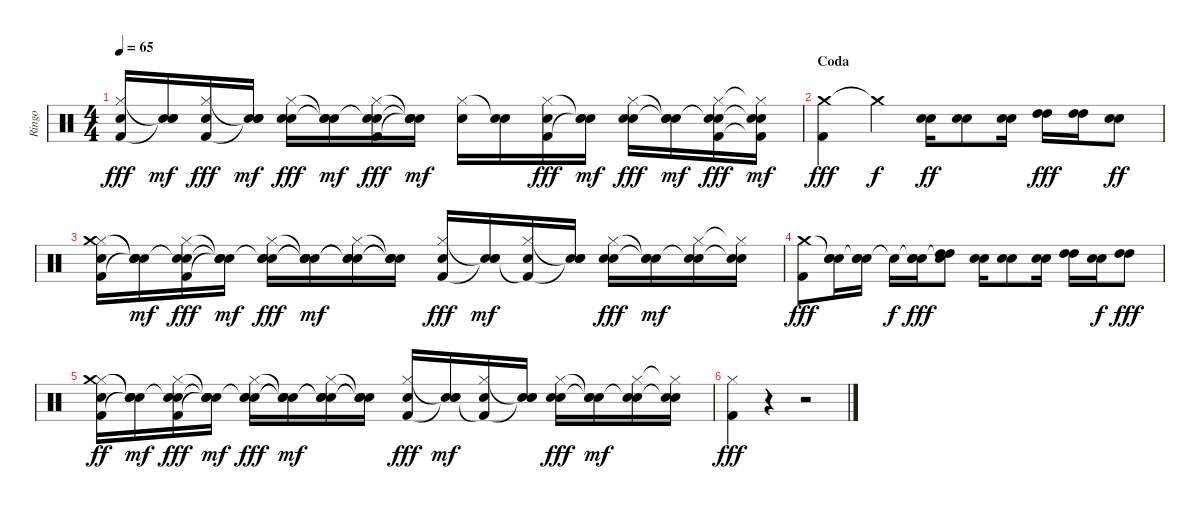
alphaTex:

\track ("Ringo" "Ringo") {instrument percussion}
\staff {score}
\articulation defaults
\ts (4 4)
\tempo 65
\clef neutral
\ks c
("Electric Snare (hit)" "Hi-Hat (closed)" "Kick (hit) 2").16{dy fff} ("Electric Snare (hit)" "Snare (hit)"{t} "Snare (hit)"{t}).16{dy mf} ("Electric Snare (hit)" "Hi-Hat (closed)" "Kick (hit) 2").16{dy fff} ("Electric Snare (hit)" "Snare (hit)"{t} "Snare (hit)"{t}).16{dy mf} ("Electric Snare (hit)" "Hi-Hat (closed)" "Snare (hit) 2").16{dy fff} ("Electric Snare (hit)" "Snare (hit)"{t} "Snare (hit)"{t}).16{dy mf} ("Electric Snare (hit)" "Hi-Hat (closed)" "Snare (hit)"{t} "Kick (hit) 2").16{dy fff} ("Electric Snare (hit)" "Snare (hit)"{t} "Snare (hit)"{t} "Snare (hit)"{t}).16{dy mf} ("Electric Snare (hit)" "Hi-Hat (closed)").16 ("Electric Snare (hit)" "Snare (hit)"{t}).16 ("Electric Snare (hit)" "Hi-Hat (closed)" "Kick (hit) 2").16{dy fff} ("Electric Snare (hit)" "Snare (hit)"{t} "Snare (hit)"{t}).16{dy mf} ("Electric Snare (hit)" "Hi-Hat (closed)" "Snare (hit) 2").16{dy fff} ("Electric Snare (hit)" "Snare (hit)"{t} "Snare (hit)"{t}).16{dy mf} ("Electric Snare (hit)" "Hi-Hat (closed)" "Snare (hit)"{t} "Kick (hit) 2").16{dy fff} ("Electric Snare (hit)" "Hi-Hat (closed)"{t} "Snare (hit)"{t} "Kick (hit) 2"{t}).16{dy mf} |
\section ("" "Coda")
("Crash medium (hit)" "Kick (hit) 2").4{dy fff} "Crash medium (hit)"{t}.4{dy f} ("Snare (hit) 2" "Snare (hit) 2").16{dy ff} ("Snare (hit) 2" "Snare (hit) 2").8 ("Snare (hit) 2" "Snare (hit) 2").16 ("High Tom (hit)" "High Tom (hit)").16{dy fff} ("High Tom (hit)" "High Tom (hit)").16 ("Snare (hit) 2" "Snare (hit) 2").8{dy ff} |
("Electric Snare (hit)" "Hi-Hat (closed)" "Kick (hit) 2" "Crash medium (hit)").16 ("Electric Snare (hit)" "Snare (hit)"{t} "Snare (hit)"{t} "Snare (hit)"{t}).16{dy mf} ("Electric Snare (hit)" "Hi-Hat (closed)" "Kick (hit) 2" "Snare (hit)"{t}).16{dy fff} ("Electric Snare (hit)" "Snare (hit)"{t} "Snare (hit)"{t} "Snare (hit)"{t}).16{dy mf} ("Electric Snare (hit)" "Hi-Hat (closed)" "Snare (hit) 2" "Snare (hit)"{t}).16{dy fff} ("Electric Snare (hit)" "Snare (hit)"{t} "Snare (hit)"{t} "Snare (hit)"{t}).16{dy mf} ("Electric Snare (hit)" "Hi-Hat (closed)" "Snare (hit)"{t} "Snare (hit)"{t}).16 ("Electric Snare (hit)" "Snare (hit)"{t} "Snare (hit)"{t} "Snare (hit)"{t}).16 ("Electric Snare (hit)" "Hi-Hat (closed)" "Kick (hit) 2").16{dy fff} ("Electric Snare (hit)" "Snare (hit)"{t} "Snare (hit)"{t}).16{dy mf} ("Electric Snare (hit)" "Hi-Hat (closed)" "Kick (hit) 2"{t}).16 ("Electric Snare (hit)" "Snare (hit)"{t} "Snare (hit)"{t}).16 ("Electric Snare (hit)" "Hi-Hat (closed)" "Snare (hit) 2").16{dy fff} ("Electric Snare (hit)" "Snare (hit)"{t} "Snare (hit)"{t}).16{dy mf} ("Electric Snare (hit)" "Hi-Hat (closed)" "Snare (hit)"{t}).16 ("Electric Snare (hit)" "Hi-Hat (closed)"{t} "Snare (hit)"{t}).16 |
("Crash medium (hit)" "Kick (hit) 2").8{dy fff} ("Snare (hit)"{t} "Snare (hit) 2" "Snare (hit) 2").16 ("Snare (hit)"{t} "Snare (hit) 2" "Snare (hit) 2").16 "Snare (hit)"{t}.16{dy f} ("Snare (hit)"{t} "Snare (hit) 2" "Snare (hit) 2").16{dy fff} ("Snare (hit)"{t} "High Tom (hit)" "High Tom (hit)").8 ("Snare (hit) 2" "Snare (hit) 2").16 ("Snare (hit) 2" "Snare (hit) 2").8 ("Snare (hit) 2" "Snare (hit) 2").16 ("High Tom (hit)" "High Tom (hit)").16 ("Snare (hit) 2" "Snare (hit) 2").16{dy f} ("High Tom (hit)" "High Tom (hit)").8{dy fff} |
("Electric Snare (hit)" "Hi-Hat (closed)" "Kick (hit) 2" "Crash medium (hit)").16{dy ff} ("Electric Snare (hit)" "Snare (hit)"{t} "Snare (hit)"{t} "Snare (hit)"{t}).16{dy mf} ("Electric Snare (hit)" "Hi-Hat (closed)" "Kick (hit) 2" "Snare (hit)"{t}).16{dy fff} ("Electric Snare (hit)" "Snare (hit)"{t} "Snare (hit)"{t} "Snare (hit)"{t}).16{dy mf} ("Electric Snare (hit)" "Hi-Hat (closed)" "Snare (hit) 2" "Snare (hit)"{t}).16{dy fff} ("Electric Snare (hit)" "Snare (hit)"{t} "Snare (hit)"{t} "Snare (hit)"{t}).16{dy mf} ("Electric Snare (hit)" "Hi-Hat (closed)" "Snare (hit)"{t} "Snare (hit)"{t}).16 ("Electric Snare (hit)" "Snare (hit)"{t} "Snare (hit)"{t} "Snare (hit)"{t}).16 ("Electric Snare (hit)" "Hi-Hat (closed)" "Kick (hit) 2").16{dy fff} ("Electric Snare (hit)" "Snare (hit)"{t} "Snare (hit)"{t}).16{dy mf} ("Electric Snare (hit)" "Hi-Hat (closed)" "Kick (hit) 2"{t}).16 ("Electric Snare (hit)" "Snare (hit)"{t} "Snare (hit)"{t}).16 ("Electric Snare (hit)" "Hi-Hat (closed)" "Snare (hit) 2").16{dy fff} ("Electric Snare (hit)" "Snare (hit)"{t} "Snare (hit)"{t}).16{dy mf} ("Electric Snare (hit)" "Hi-Hat (closed)" "Snare (hit)"{t}).16 ("Electric Snare (hit)" "Hi-Hat (closed)"{t} "Snare (hit)"{t}).16 |
("Hi-Hat (closed)" "Kick (hit) 2").4{dy fff} r.4 r.2
